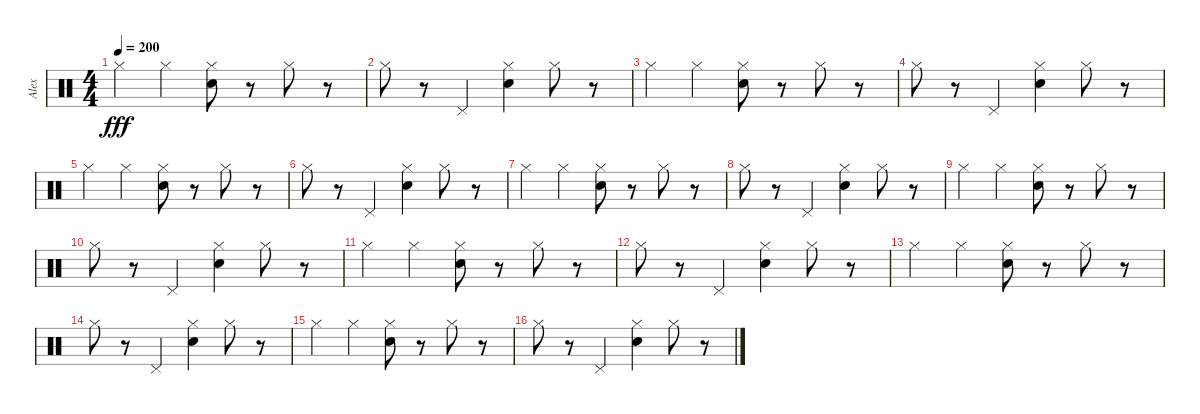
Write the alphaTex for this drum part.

\track ("Alex" "Alex") {instrument percussion}
\staff {score}
\articulation defaults
\ts (4 4)
\tempo 200
\clef neutral
\ks c "Hi-Hat (closed)".4{dy fff} "Hi-Hat (closed)".4
("Electric Snare (hit)" "Hi-Hat (closed)").8 r.8 "Hi-Hat (closed)".8 r.8 |
"Hi-Hat (closed)".8 r.8 "Pedal Hi-Hat (hit)".4 ("Electric Snare (hit)" "Hi-Hat (closed)").4 "Hi-Hat (closed)".8 r.8 |
"Hi-Hat (closed)".4 "Hi-Hat (closed)".4 ("Electric Snare (hit)" "Hi-Hat (closed)").8 r.8 "Hi-Hat (closed)".8 r.8 |
"Hi-Hat (closed)".8 r.8 "Pedal Hi-Hat (hit)".4 ("Electric Snare (hit)" "Hi-Hat (closed)").4 "Hi-Hat (closed)".8 r.8 |
"Hi-Hat (closed)".4 "Hi-Hat (closed)".4 ("Electric Snare (hit)" "Hi-Hat (closed)").8 r.8 "Hi-Hat (closed)".8 r.8 |
"Hi-Hat (closed)".8 r.8 "Pedal Hi-Hat (hit)".4 ("Electric Snare (hit)" "Hi-Hat (closed)").4 "Hi-Hat (closed)".8 r.8 |
"Hi-Hat (closed)".4 "Hi-Hat (closed)".4 ("Electric Snare (hit)" "Hi-Hat (closed)").8 r.8 "Hi-Hat (closed)".8 r.8 |
"Hi-Hat (closed)".8 r.8 "Pedal Hi-Hat (hit)".4 ("Electric Snare (hit)" "Hi-Hat (closed)").4 "Hi-Hat (closed)".8 r.8 |
"Hi-Hat (closed)".4 "Hi-Hat (closed)".4 ("Electric Snare (hit)" "Hi-Hat (closed)").8 r.8 "Hi-Hat (closed)".8 r.8 |
"Hi-Hat (closed)".8 r.8 "Pedal Hi-Hat (hit)".4 ("Electric Snare (hit)" "Hi-Hat (closed)").4 "Hi-Hat (closed)".8 r.8 |
"Hi-Hat (closed)".4 "Hi-Hat (closed)".4 ("Electric Snare (hit)" "Hi-Hat (closed)").8 r.8 "Hi-Hat (closed)".8 r.8 |
"Hi-Hat (closed)".8 r.8 "Pedal Hi-Hat (hit)".4 ("Electric Snare (hit)" "Hi-Hat (closed)").4 "Hi-Hat (closed)".8 r.8 |
"Hi-Hat (closed)".4 "Hi-Hat (closed)".4 ("Electric Snare (hit)" "Hi-Hat (closed)").8 r.8 "Hi-Hat (closed)".8 r.8 |
"Hi-Hat (closed)".8 r.8 "Pedal Hi-Hat (hit)".4 ("Electric Snare (hit)" "Hi-Hat (closed)").4 "Hi-Hat (closed)".8 r.8 |
"Hi-Hat (closed)".4 "Hi-Hat (closed)".4 ("Electric Snare (hit)" "Hi-Hat (closed)").8 r.8 "Hi-Hat (closed)".8 r.8 |
"Hi-Hat (closed)".8 r.8 "Pedal Hi-Hat (hit)".4 ("Electric Snare (hit)" "Hi-Hat (closed)").4 "Hi-Hat (closed)".8 r.8
